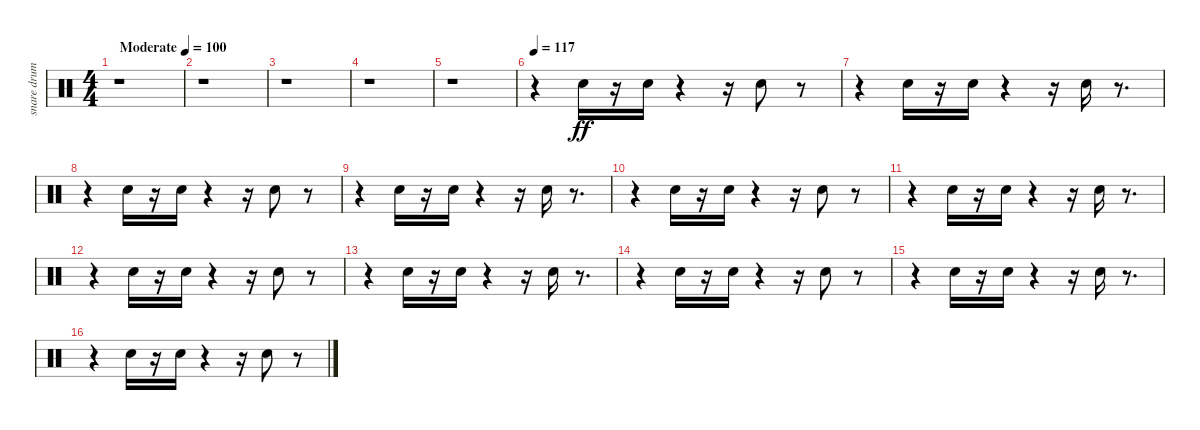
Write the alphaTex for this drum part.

\track ("snare drum" "snare drum") {instrument percussion}
\staff {score}
\articulation defaults
\ts (4 4)
\tempo (100 "Moderate")
\clef neutral
\ks c
r.1{dy ff} |
r.1 |
r.1 |
r.1 |
r.1 |
\tempo 117
r.4 "Snare (hit) 2".16 r.16 "Snare (hit) 2".16 r.4 r.16 "Snare (hit) 2".8 r.8 |
r.4 "Snare (hit) 2".16 r.16 "Snare (hit) 2".16 r.4 r.16 "Snare (hit) 2".16 r.8{d} |
r.4 "Snare (hit) 2".16 r.16 "Snare (hit) 2".16 r.4 r.16 "Snare (hit) 2".8 r.8 |
r.4 "Snare (hit) 2".16 r.16 "Snare (hit) 2".16 r.4 r.16 "Snare (hit) 2".16 r.8{d} |
r.4 "Snare (hit) 2".16 r.16 "Snare (hit) 2".16 r.4 r.16 "Snare (hit) 2".8 r.8 |
r.4 "Snare (hit) 2".16 r.16 "Snare (hit) 2".16 r.4 r.16 "Snare (hit) 2".16 r.8{d} |
r.4 "Snare (hit) 2".16 r.16 "Snare (hit) 2".16 r.4 r.16 "Snare (hit) 2".8 r.8 |
r.4 "Snare (hit) 2".16 r.16 "Snare (hit) 2".16 r.4 r.16 "Snare (hit) 2".16 r.8{d} |
r.4 "Snare (hit) 2".16 r.16 "Snare (hit) 2".16 r.4 r.16 "Snare (hit) 2".8 r.8 |
r.4 "Snare (hit) 2".16 r.16 "Snare (hit) 2".16 r.4 r.16 "Snare (hit) 2".16 r.8{d} |
r.4 "Snare (hit) 2".16 r.16 "Snare (hit) 2".16 r.4 r.16 "Snare (hit) 2".8 r.8
